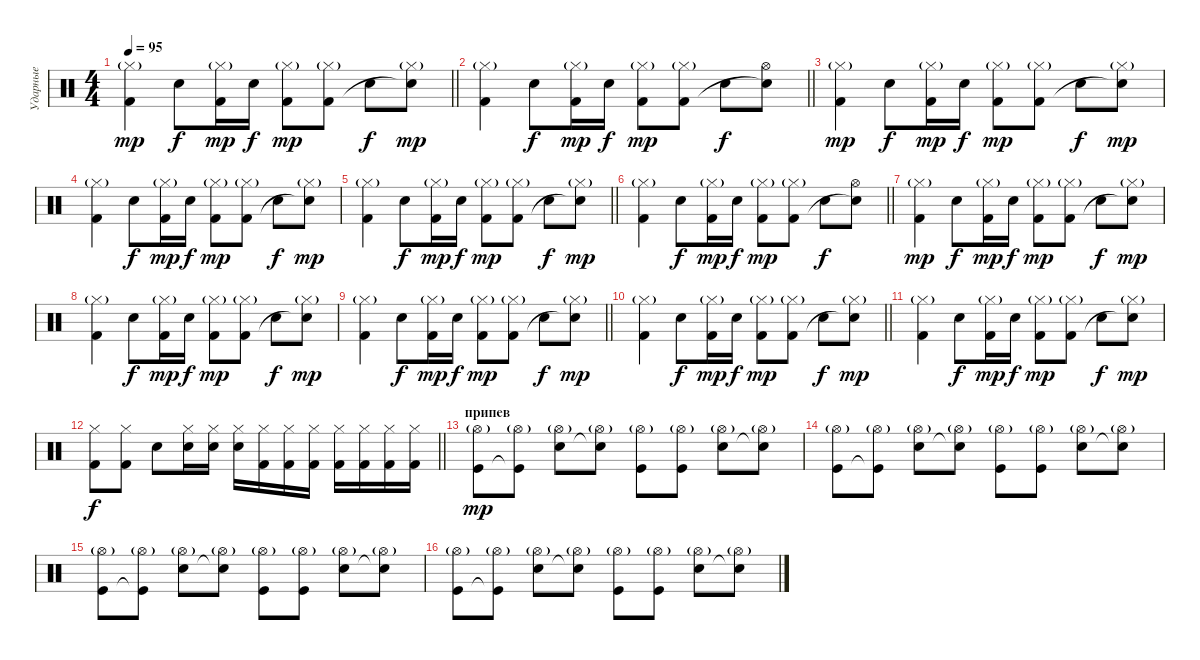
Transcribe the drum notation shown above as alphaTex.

\track ("Ударные" "Ударные") {instrument percussion}
\staff {score}
\articulation defaults
\ts (4 4)
\tempo 95
\clef neutral
\barLineRight lightlight
\ks c
("Hi-Hat (closed)"{g} "Kick (hit) 2").4{dy mp} "Electric Snare (hit)".8{dy f} ("Hi-Hat (closed)"{g} "Kick (hit) 2").16{dy mp} "Electric Snare (hit)".16{dy f} ("Hi-Hat (closed)"{g} "Kick (hit) 2").8{dy mp} ("Hi-Hat (closed)"{g} "Kick (hit) 2").8 "Electric Snare (hit)".8{dy f} ("Hi-Hat (closed)"{g} "Snare (hit)"{t}).8{dy mp} |
\barLineRight lightlight
("Hi-Hat (closed)"{g} "Kick (hit) 2").4 "Electric Snare (hit)".8{dy f} ("Hi-Hat (closed)"{g} "Kick (hit) 2").16{dy mp} "Electric Snare (hit)".16{dy f} ("Hi-Hat (closed)"{g} "Kick (hit) 2").8{dy mp} ("Hi-Hat (closed)"{g} "Kick (hit) 2").8 "Electric Snare (hit)".8{dy f} ("Hi-Hat (open)" "Snare (hit)"{t}).8 |
("Hi-Hat (closed)"{g} "Kick (hit) 2").4{dy mp} "Electric Snare (hit)".8{dy f} ("Hi-Hat (closed)"{g} "Kick (hit) 2").16{dy mp} "Electric Snare (hit)".16{dy f} ("Hi-Hat (closed)"{g} "Kick (hit) 2").8{dy mp} ("Hi-Hat (closed)"{g} "Kick (hit) 2").8 "Electric Snare (hit)".8{dy f} ("Hi-Hat (closed)"{g} "Snare (hit)"{t}).8{dy mp} |
("Hi-Hat (closed)"{g} "Kick (hit) 2").4 "Electric Snare (hit)".8{dy f} ("Hi-Hat (closed)"{g} "Kick (hit) 2").16{dy mp} "Electric Snare (hit)".16{dy f} ("Hi-Hat (closed)"{g} "Kick (hit) 2").8{dy mp} ("Hi-Hat (closed)"{g} "Kick (hit) 2").8 "Electric Snare (hit)".8{dy f} ("Hi-Hat (closed)"{g} "Snare (hit)"{t}).8{dy mp} |
\barLineRight lightlight
("Hi-Hat (closed)"{g} "Kick (hit) 2").4 "Electric Snare (hit)".8{dy f} ("Hi-Hat (closed)"{g} "Kick (hit) 2").16{dy mp} "Electric Snare (hit)".16{dy f} ("Hi-Hat (closed)"{g} "Kick (hit) 2").8{dy mp} ("Hi-Hat (closed)"{g} "Kick (hit) 2").8 "Electric Snare (hit)".8{dy f} ("Hi-Hat (closed)"{g} "Snare (hit)"{t}).8{dy mp} |
\barLineRight lightlight
("Hi-Hat (closed)"{g} "Kick (hit) 2").4 "Electric Snare (hit)".8{dy f} ("Hi-Hat (closed)"{g} "Kick (hit) 2").16{dy mp} "Electric Snare (hit)".16{dy f} ("Hi-Hat (closed)"{g} "Kick (hit) 2").8{dy mp} ("Hi-Hat (closed)"{g} "Kick (hit) 2").8 "Electric Snare (hit)".8{dy f} ("Hi-Hat (open)" "Snare (hit)"{t}).8 |
("Hi-Hat (closed)"{g} "Kick (hit) 2").4{dy mp} "Electric Snare (hit)".8{dy f} ("Hi-Hat (closed)"{g} "Kick (hit) 2").16{dy mp} "Electric Snare (hit)".16{dy f} ("Hi-Hat (closed)"{g} "Kick (hit) 2").8{dy mp} ("Hi-Hat (closed)"{g} "Kick (hit) 2").8 "Electric Snare (hit)".8{dy f} ("Hi-Hat (closed)"{g} "Snare (hit)"{t}).8{dy mp} |
("Hi-Hat (closed)"{g} "Kick (hit) 2").4 "Electric Snare (hit)".8{dy f} ("Hi-Hat (closed)"{g} "Kick (hit) 2").16{dy mp} "Electric Snare (hit)".16{dy f} ("Hi-Hat (closed)"{g} "Kick (hit) 2").8{dy mp} ("Hi-Hat (closed)"{g} "Kick (hit) 2").8 "Electric Snare (hit)".8{dy f} ("Hi-Hat (closed)"{g} "Snare (hit)"{t}).8{dy mp} |
\barLineRight lightlight
("Hi-Hat (closed)"{g} "Kick (hit) 2").4 "Electric Snare (hit)".8{dy f} ("Hi-Hat (closed)"{g} "Kick (hit) 2").16{dy mp} "Electric Snare (hit)".16{dy f} ("Hi-Hat (closed)"{g} "Kick (hit) 2").8{dy mp} ("Hi-Hat (closed)"{g} "Kick (hit) 2").8 "Electric Snare (hit)".8{dy f} ("Hi-Hat (closed)"{g} "Snare (hit)"{t}).8{dy mp} |
\barLineRight lightlight
("Hi-Hat (closed)"{g} "Kick (hit) 2").4 "Electric Snare (hit)".8{dy f} ("Hi-Hat (closed)"{g} "Kick (hit) 2").16{dy mp} "Electric Snare (hit)".16{dy f} ("Hi-Hat (closed)"{g} "Kick (hit) 2").8{dy mp} ("Hi-Hat (closed)"{g} "Kick (hit) 2").8 "Electric Snare (hit)".8{dy f} ("Hi-Hat (closed)"{g} "Snare (hit)"{t}).8{dy mp} |
("Hi-Hat (closed)"{g} "Kick (hit) 2").4 "Electric Snare (hit)".8{dy f} ("Hi-Hat (closed)"{g} "Kick (hit) 2").16{dy mp} "Electric Snare (hit)".16{dy f} ("Hi-Hat (closed)"{g} "Kick (hit) 2").8{dy mp} ("Hi-Hat (closed)"{g} "Kick (hit) 2").8 "Electric Snare (hit)".8{dy f} ("Hi-Hat (closed)"{g} "Snare (hit)"{t}).8{dy mp} |
\barLineRight lightlight
("Kick (hit) 2" "Hi-Hat (closed)").8{dy f} ("Hi-Hat (closed)" "Kick (hit) 2").8 "Snare (hit) 2".8 ("Snare (hit) 2" "Hi-Hat (closed)").16 ("Snare (hit) 2" "Hi-Hat (closed)").16 ("Snare (hit) 2" "Hi-Hat (closed)").16 ("Kick (hit) 2" "Hi-Hat (closed)").16 ("Kick (hit) 2" "Hi-Hat (closed)").16 ("Kick (hit) 2" "Hi-Hat (closed)").16 ("Kick (hit) 2" "Hi-Hat (closed)").16 ("Kick (hit) 2" "Hi-Hat (closed)").16 ("Kick (hit) 2" "Hi-Hat (closed)").16 ("Kick (hit) 2" "Hi-Hat (closed)").16 |
\section ("" "припев")
("Hi-Hat (open)"{g} "Kick (hit)").8{dy mp} ("Hi-Hat (open)"{g} "Kick (hit)"{t}).8 ("Hi-Hat (open)"{g} "Snare (hit) 2").8 ("Hi-Hat (open)"{g} "Snare (hit) 2"{t}).8 ("Hi-Hat (open)"{g} "Kick (hit)").8 ("Hi-Hat (open)"{g} "Kick (hit)").8 ("Hi-Hat (open)"{g} "Snare (hit) 2").8 ("Hi-Hat (open)"{g} "Snare (hit) 2"{t}).8 |
("Hi-Hat (open)"{g} "Kick (hit)").8 ("Hi-Hat (open)"{g} "Kick (hit)"{t}).8 ("Hi-Hat (open)"{g} "Snare (hit) 2").8 ("Hi-Hat (open)"{g} "Snare (hit) 2"{t}).8 ("Hi-Hat (open)"{g} "Kick (hit)").8 ("Hi-Hat (open)"{g} "Kick (hit)").8 ("Hi-Hat (open)"{g} "Snare (hit) 2").8 ("Hi-Hat (open)"{g} "Snare (hit) 2"{t}).8 |
("Hi-Hat (open)"{g} "Kick (hit)").8 ("Hi-Hat (open)"{g} "Kick (hit)"{t}).8 ("Hi-Hat (open)"{g} "Snare (hit) 2").8 ("Hi-Hat (open)"{g} "Snare (hit) 2"{t}).8 ("Hi-Hat (open)"{g} "Kick (hit)").8 ("Hi-Hat (open)"{g} "Kick (hit)").8 ("Hi-Hat (open)"{g} "Snare (hit) 2").8 ("Hi-Hat (open)"{g} "Snare (hit) 2"{t}).8 |
("Hi-Hat (open)"{g} "Kick (hit)").8 ("Hi-Hat (open)"{g} "Kick (hit)"{t}).8 ("Hi-Hat (open)"{g} "Snare (hit) 2").8 ("Hi-Hat (open)"{g} "Snare (hit) 2"{t}).8 ("Hi-Hat (open)"{g} "Kick (hit)").8 ("Hi-Hat (open)"{g} "Kick (hit)").8 ("Hi-Hat (open)"{g} "Snare (hit) 2").8 ("Hi-Hat (open)"{g} "Snare (hit) 2"{t}).8
